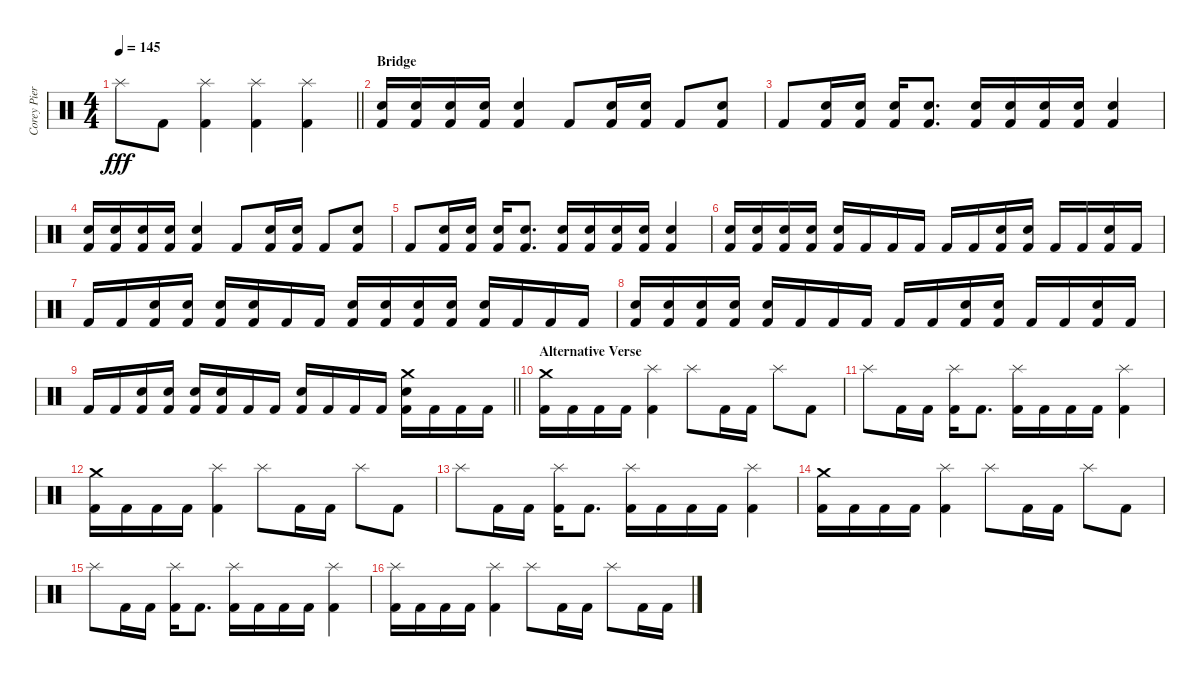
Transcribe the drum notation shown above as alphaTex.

\track ("Corey Pierce" "Corey Pier") {instrument percussion}
\staff {score}
\articulation defaults
\ts (4 4)
\tempo 145
\clef neutral
\barLineRight lightlight
\ks c "Splash (hit)".8{dy fff} "Kick (hit) 2".8
("Splash (hit)" "Kick (hit) 2").4 ("Splash (hit)" "Kick (hit) 2").4 ("Splash (hit)" "Kick (hit) 2").4 |
\section ("" "Bridge")
("Electric Snare (hit)" "Kick (hit) 2").16 ("Electric Snare (hit)" "Kick (hit) 2").16 ("Electric Snare (hit)" "Kick (hit) 2").16 ("Electric Snare (hit)" "Kick (hit) 2").16 ("Electric Snare (hit)" "Kick (hit) 2").4 "Kick (hit) 2".8 ("Electric Snare (hit)" "Kick (hit) 2").16 ("Electric Snare (hit)" "Kick (hit) 2").16 "Kick (hit) 2".8 ("Electric Snare (hit)" "Kick (hit) 2").8 |
"Kick (hit) 2".8 ("Electric Snare (hit)" "Kick (hit) 2").16 ("Electric Snare (hit)" "Kick (hit) 2").16 ("Electric Snare (hit)" "Kick (hit) 2").16 ("Electric Snare (hit)" "Kick (hit) 2").8{d} ("Electric Snare (hit)" "Kick (hit) 2").16 ("Electric Snare (hit)" "Kick (hit) 2").16 ("Electric Snare (hit)" "Kick (hit) 2").16 ("Electric Snare (hit)" "Kick (hit) 2").16 ("Electric Snare (hit)" "Kick (hit) 2").4 |
("Electric Snare (hit)" "Kick (hit) 2").16 ("Electric Snare (hit)" "Kick (hit) 2").16 ("Electric Snare (hit)" "Kick (hit) 2").16 ("Electric Snare (hit)" "Kick (hit) 2").16 ("Electric Snare (hit)" "Kick (hit) 2").4 "Kick (hit) 2".8 ("Electric Snare (hit)" "Kick (hit) 2").16 ("Electric Snare (hit)" "Kick (hit) 2").16 "Kick (hit) 2".8 ("Electric Snare (hit)" "Kick (hit) 2").8 |
"Kick (hit) 2".8 ("Electric Snare (hit)" "Kick (hit) 2").16 ("Electric Snare (hit)" "Kick (hit) 2").16 ("Electric Snare (hit)" "Kick (hit) 2").16 ("Electric Snare (hit)" "Kick (hit) 2").8{d} ("Electric Snare (hit)" "Kick (hit) 2").16 ("Electric Snare (hit)" "Kick (hit) 2").16 ("Electric Snare (hit)" "Kick (hit) 2").16 ("Electric Snare (hit)" "Kick (hit) 2").16 ("Electric Snare (hit)" "Kick (hit) 2").4 |
("Electric Snare (hit)" "Kick (hit) 2").16 ("Electric Snare (hit)" "Kick (hit) 2").16 ("Electric Snare (hit)" "Kick (hit) 2").16 ("Electric Snare (hit)" "Kick (hit) 2").16 ("Electric Snare (hit)" "Kick (hit) 2").16 "Kick (hit) 2".16 "Kick (hit) 2".16 "Kick (hit) 2".16 "Kick (hit) 2".16 "Kick (hit) 2".16 ("Electric Snare (hit)" "Kick (hit) 2").16 ("Electric Snare (hit)" "Kick (hit) 2").16 "Kick (hit) 2".16 "Kick (hit) 2".16 ("Electric Snare (hit)" "Kick (hit) 2").16 "Kick (hit) 2".16 |
"Kick (hit) 2".16 "Kick (hit) 2".16 ("Electric Snare (hit)" "Kick (hit) 2").16 ("Electric Snare (hit)" "Kick (hit) 2").16 ("Electric Snare (hit)" "Kick (hit) 2").16 ("Electric Snare (hit)" "Kick (hit) 2").16 "Kick (hit) 2".16 "Kick (hit) 2".16 ("Electric Snare (hit)" "Kick (hit) 2").16 ("Electric Snare (hit)" "Kick (hit) 2").16 ("Electric Snare (hit)" "Kick (hit) 2").16 ("Electric Snare (hit)" "Kick (hit) 2").16 ("Electric Snare (hit)" "Kick (hit) 2").16 "Kick (hit) 2".16 "Kick (hit) 2".16 "Kick (hit) 2".16 |
("Electric Snare (hit)" "Kick (hit) 2").16 ("Electric Snare (hit)" "Kick (hit) 2").16 ("Electric Snare (hit)" "Kick (hit) 2").16 ("Electric Snare (hit)" "Kick (hit) 2").16 ("Electric Snare (hit)" "Kick (hit) 2").16 "Kick (hit) 2".16 "Kick (hit) 2".16 "Kick (hit) 2".16 "Kick (hit) 2".16 "Kick (hit) 2".16 ("Electric Snare (hit)" "Kick (hit) 2").16 ("Electric Snare (hit)" "Kick (hit) 2").16 "Kick (hit) 2".16 "Kick (hit) 2".16 ("Electric Snare (hit)" "Kick (hit) 2").16 "Kick (hit) 2".16 |
\barLineRight lightlight "Kick (hit) 2".16 "Kick (hit) 2".16
("Electric Snare (hit)" "Kick (hit) 2").16 ("Electric Snare (hit)" "Kick (hit) 2").16 ("Electric Snare (hit)" "Kick (hit) 2").16 ("Electric Snare (hit)" "Kick (hit) 2").16 "Kick (hit) 2".16 "Kick (hit) 2".16 ("Electric Snare (hit)" "Kick (hit) 2").16 "Kick (hit) 2".16 "Kick (hit) 2".16 "Kick (hit) 2".16 ("Crash medium (hit)" "Electric Snare (hit)" "Kick (hit) 2").16 "Kick (hit) 2".16 "Kick (hit) 2".16 "Kick (hit) 2".16 |
\section ("" "Alternative Verse")
("Crash medium (hit)" "Kick (hit) 2").16 "Kick (hit) 2".16 "Kick (hit) 2".16 "Kick (hit) 2".16 ("Splash (hit)" "Kick (hit) 2").4 "Splash (hit)".8 "Kick (hit) 2".16 "Kick (hit) 2".16 "Splash (hit)".8 "Kick (hit) 2".8 |
"Splash (hit)".8 "Kick (hit) 2".16 "Kick (hit) 2".16 ("Splash (hit)" "Kick (hit) 2").16 "Kick (hit) 2".8{d} ("Splash (hit)" "Kick (hit) 2").16 "Kick (hit) 2".16 "Kick (hit) 2".16 "Kick (hit) 2".16 ("Splash (hit)" "Kick (hit) 2").4 |
("Crash medium (hit)" "Kick (hit) 2").16 "Kick (hit) 2".16 "Kick (hit) 2".16 "Kick (hit) 2".16 ("Splash (hit)" "Kick (hit) 2").4 "Splash (hit)".8 "Kick (hit) 2".16 "Kick (hit) 2".16 "Splash (hit)".8 "Kick (hit) 2".8 |
"Splash (hit)".8 "Kick (hit) 2".16 "Kick (hit) 2".16 ("Splash (hit)" "Kick (hit) 2").16 "Kick (hit) 2".8{d} ("Splash (hit)" "Kick (hit) 2").16 "Kick (hit) 2".16 "Kick (hit) 2".16 "Kick (hit) 2".16 ("Splash (hit)" "Kick (hit) 2").4 |
("Crash medium (hit)" "Kick (hit) 2").16 "Kick (hit) 2".16 "Kick (hit) 2".16 "Kick (hit) 2".16 ("Splash (hit)" "Kick (hit) 2").4 "Splash (hit)".8 "Kick (hit) 2".16 "Kick (hit) 2".16 "Splash (hit)".8 "Kick (hit) 2".8 |
"Splash (hit)".8 "Kick (hit) 2".16 "Kick (hit) 2".16 ("Splash (hit)" "Kick (hit) 2").16 "Kick (hit) 2".8{d} ("Splash (hit)" "Kick (hit) 2").16 "Kick (hit) 2".16 "Kick (hit) 2".16 "Kick (hit) 2".16 ("Splash (hit)" "Kick (hit) 2").4 |
("Splash (hit)" "Kick (hit) 2").16 "Kick (hit) 2".16 "Kick (hit) 2".16 "Kick (hit) 2".16 ("Splash (hit)" "Kick (hit) 2").4 "Splash (hit)".8 "Kick (hit) 2".16 "Kick (hit) 2".16 "Splash (hit)".8 "Kick (hit) 2".16 "Kick (hit) 2".16
